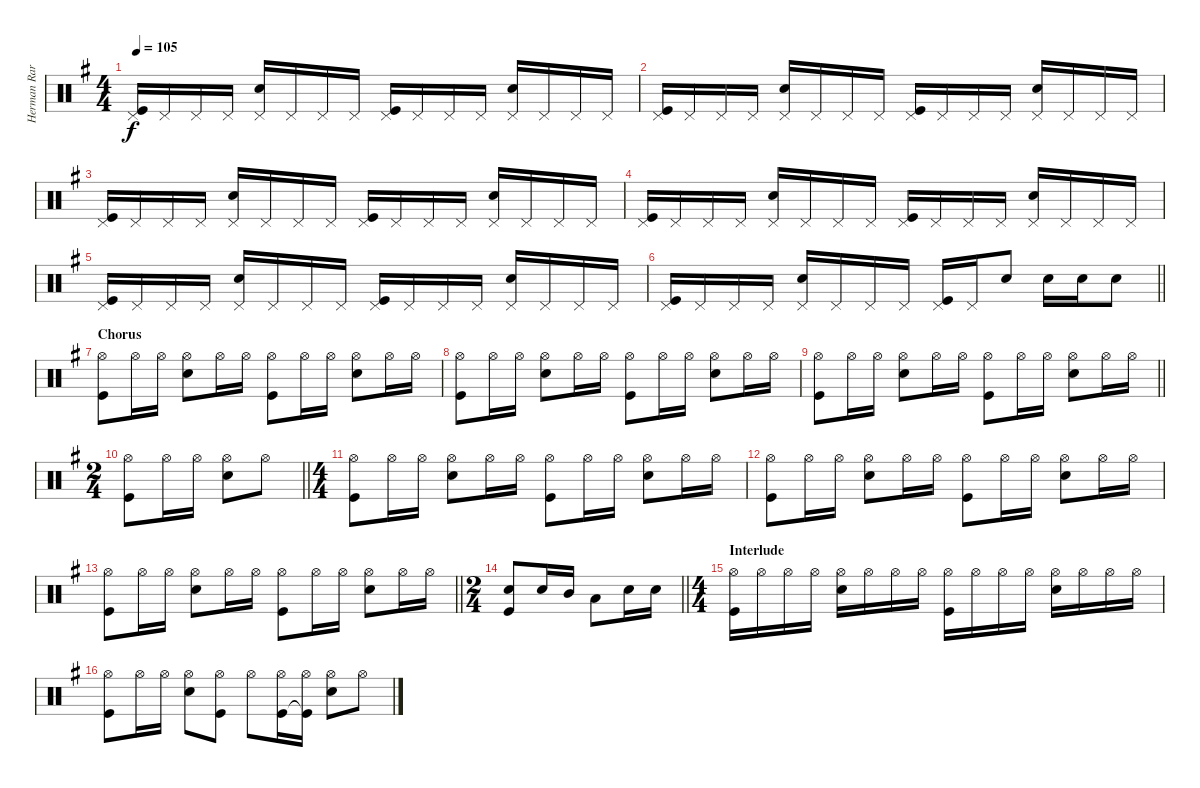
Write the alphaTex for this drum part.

\track ("Herman Rarebell" "Herman Rar") {instrument percussion}
\staff {score}
\articulation defaults
\ts (4 4)
\tempo 105
\clef neutral
\ks g
("Pedal Hi-Hat (hit)" "Kick (hit)").16{dy f} "Pedal Hi-Hat (hit)".16 "Pedal Hi-Hat (hit)".16 "Pedal Hi-Hat (hit)".16 ("Pedal Hi-Hat (hit)" "Snare (hit) 2").16 "Pedal Hi-Hat (hit)".16 "Pedal Hi-Hat (hit)".16 "Pedal Hi-Hat (hit)".16 ("Pedal Hi-Hat (hit)" "Kick (hit)").16 "Pedal Hi-Hat (hit)".16 "Pedal Hi-Hat (hit)".16 "Pedal Hi-Hat (hit)".16 ("Pedal Hi-Hat (hit)" "Snare (hit) 2").16 "Pedal Hi-Hat (hit)".16 "Pedal Hi-Hat (hit)".16 "Pedal Hi-Hat (hit)".16 |
("Pedal Hi-Hat (hit)" "Kick (hit)").16 "Pedal Hi-Hat (hit)".16 "Pedal Hi-Hat (hit)".16 "Pedal Hi-Hat (hit)".16 ("Pedal Hi-Hat (hit)" "Snare (hit) 2").16 "Pedal Hi-Hat (hit)".16 "Pedal Hi-Hat (hit)".16 "Pedal Hi-Hat (hit)".16 ("Pedal Hi-Hat (hit)" "Kick (hit)").16 "Pedal Hi-Hat (hit)".16 "Pedal Hi-Hat (hit)".16 "Pedal Hi-Hat (hit)".16 ("Pedal Hi-Hat (hit)" "Snare (hit) 2").16 "Pedal Hi-Hat (hit)".16 "Pedal Hi-Hat (hit)".16 "Pedal Hi-Hat (hit)".16 |
("Pedal Hi-Hat (hit)" "Kick (hit)").16 "Pedal Hi-Hat (hit)".16 "Pedal Hi-Hat (hit)".16 "Pedal Hi-Hat (hit)".16 ("Pedal Hi-Hat (hit)" "Snare (hit) 2").16 "Pedal Hi-Hat (hit)".16 "Pedal Hi-Hat (hit)".16 "Pedal Hi-Hat (hit)".16 ("Pedal Hi-Hat (hit)" "Kick (hit)").16 "Pedal Hi-Hat (hit)".16 "Pedal Hi-Hat (hit)".16 "Pedal Hi-Hat (hit)".16 ("Pedal Hi-Hat (hit)" "Snare (hit) 2").16 "Pedal Hi-Hat (hit)".16 "Pedal Hi-Hat (hit)".16 "Pedal Hi-Hat (hit)".16 |
("Pedal Hi-Hat (hit)" "Kick (hit)").16 "Pedal Hi-Hat (hit)".16 "Pedal Hi-Hat (hit)".16 "Pedal Hi-Hat (hit)".16 ("Pedal Hi-Hat (hit)" "Snare (hit) 2").16 "Pedal Hi-Hat (hit)".16 "Pedal Hi-Hat (hit)".16 "Pedal Hi-Hat (hit)".16 ("Pedal Hi-Hat (hit)" "Kick (hit)").16 "Pedal Hi-Hat (hit)".16 "Pedal Hi-Hat (hit)".16 "Pedal Hi-Hat (hit)".16 ("Pedal Hi-Hat (hit)" "Snare (hit) 2").16 "Pedal Hi-Hat (hit)".16 "Pedal Hi-Hat (hit)".16 "Pedal Hi-Hat (hit)".16 |
("Pedal Hi-Hat (hit)" "Kick (hit)").16 "Pedal Hi-Hat (hit)".16 "Pedal Hi-Hat (hit)".16 "Pedal Hi-Hat (hit)".16 ("Pedal Hi-Hat (hit)" "Snare (hit) 2").16 "Pedal Hi-Hat (hit)".16 "Pedal Hi-Hat (hit)".16 "Pedal Hi-Hat (hit)".16 ("Pedal Hi-Hat (hit)" "Kick (hit)").16 "Pedal Hi-Hat (hit)".16 "Pedal Hi-Hat (hit)".16 "Pedal Hi-Hat (hit)".16 ("Pedal Hi-Hat (hit)" "Snare (hit) 2").16 "Pedal Hi-Hat (hit)".16 "Pedal Hi-Hat (hit)".16 "Pedal Hi-Hat (hit)".16 |
\barLineRight lightlight
("Pedal Hi-Hat (hit)" "Kick (hit)").16 "Pedal Hi-Hat (hit)".16 "Pedal Hi-Hat (hit)".16 "Pedal Hi-Hat (hit)".16 ("Pedal Hi-Hat (hit)" "Snare (hit) 2").16 "Pedal Hi-Hat (hit)".16 "Pedal Hi-Hat (hit)".16 "Pedal Hi-Hat (hit)".16 ("Pedal Hi-Hat (hit)" "Kick (hit)").16 "Pedal Hi-Hat (hit)".16 "Snare (hit) 2".8 "Snare (hit) 2".16 "Snare (hit) 2".16 "Snare (hit) 2".8 |
\section ("" "Chorus")
("Hi-Hat (open)" "Kick (hit)").8 "Hi-Hat (open)".16 "Hi-Hat (open)".16 ("Hi-Hat (open)" "Snare (hit) 2").8 "Hi-Hat (open)".16 "Hi-Hat (open)".16 ("Hi-Hat (open)" "Kick (hit)").8 "Hi-Hat (open)".16 "Hi-Hat (open)".16 ("Hi-Hat (open)" "Snare (hit) 2").8 "Hi-Hat (open)".16 "Hi-Hat (open)".16 |
("Hi-Hat (open)" "Kick (hit)").8 "Hi-Hat (open)".16 "Hi-Hat (open)".16 ("Hi-Hat (open)" "Snare (hit) 2").8 "Hi-Hat (open)".16 "Hi-Hat (open)".16 ("Hi-Hat (open)" "Kick (hit)").8 "Hi-Hat (open)".16 "Hi-Hat (open)".16 ("Hi-Hat (open)" "Snare (hit) 2").8 "Hi-Hat (open)".16 "Hi-Hat (open)".16 |
\barLineRight lightlight
("Hi-Hat (open)" "Kick (hit)").8 "Hi-Hat (open)".16 "Hi-Hat (open)".16 ("Hi-Hat (open)" "Snare (hit) 2").8 "Hi-Hat (open)".16 "Hi-Hat (open)".16 ("Hi-Hat (open)" "Kick (hit)").8 "Hi-Hat (open)".16 "Hi-Hat (open)".16 ("Hi-Hat (open)" "Snare (hit) 2").8 "Hi-Hat (open)".16 "Hi-Hat (open)".16 |
\ts (2 4)
\barLineRight lightlight
("Hi-Hat (open)" "Kick (hit)").8 "Hi-Hat (open)".16 "Hi-Hat (open)".16 ("Hi-Hat (open)" "Snare (hit) 2").8 "Hi-Hat (open)".8 |
\ts (4 4)
("Hi-Hat (open)" "Kick (hit)").8 "Hi-Hat (open)".16 "Hi-Hat (open)".16 ("Hi-Hat (open)" "Snare (hit) 2").8 "Hi-Hat (open)".16 "Hi-Hat (open)".16 ("Hi-Hat (open)" "Kick (hit)").8 "Hi-Hat (open)".16 "Hi-Hat (open)".16 ("Hi-Hat (open)" "Snare (hit) 2").8 "Hi-Hat (open)".16 "Hi-Hat (open)".16 |
("Hi-Hat (open)" "Kick (hit)").8 "Hi-Hat (open)".16 "Hi-Hat (open)".16 ("Hi-Hat (open)" "Snare (hit) 2").8 "Hi-Hat (open)".16 "Hi-Hat (open)".16 ("Hi-Hat (open)" "Kick (hit)").8 "Hi-Hat (open)".16 "Hi-Hat (open)".16 ("Hi-Hat (open)" "Snare (hit) 2").8 "Hi-Hat (open)".16 "Hi-Hat (open)".16 |
\barLineRight lightlight
("Hi-Hat (open)" "Kick (hit)").8 "Hi-Hat (open)".16 "Hi-Hat (open)".16 ("Hi-Hat (open)" "Snare (hit) 2").8 "Hi-Hat (open)".16 "Hi-Hat (open)".16 ("Hi-Hat (open)" "Kick (hit)").8 "Hi-Hat (open)".16 "Hi-Hat (open)".16 ("Hi-Hat (open)" "Snare (hit) 2").8 "Hi-Hat (open)".16 "Hi-Hat (open)".16 |
\ts (2 4)
\barLineRight lightlight
("Snare (hit) 2" "Kick (hit)").8 "Snare (hit) 2".16 "Mid Tom (hit)".16 "Low Tom (hit)".8 "Snare (hit) 2".16 "Snare (hit) 2".16 |
\ts (4 4)
\section ("" "Interlude")
("Hi-Hat (open)" "Kick (hit)").16 "Hi-Hat (open)".16 "Hi-Hat (open)".16 "Hi-Hat (open)".16 ("Hi-Hat (open)" "Snare (hit) 2").16 "Hi-Hat (open)".16 "Hi-Hat (open)".16 "Hi-Hat (open)".16 ("Hi-Hat (open)" "Kick (hit)").16 "Hi-Hat (open)".16 "Hi-Hat (open)".16 "Hi-Hat (open)".16 ("Hi-Hat (open)" "Snare (hit) 2").16 "Hi-Hat (open)".16 "Hi-Hat (open)".16 "Hi-Hat (open)".16 |
("Hi-Hat (open)" "Kick (hit)").8 "Hi-Hat (open)".16 "Hi-Hat (open)".16 ("Hi-Hat (open)" "Snare (hit) 2").8 ("Hi-Hat (open)" "Kick (hit)").8 "Hi-Hat (open)".8 ("Hi-Hat (open)" "Kick (hit)").16 ("Hi-Hat (open)" "Kick (hit)"{t}).16 ("Hi-Hat (open)" "Snare (hit) 2").8 "Hi-Hat (open)".8
